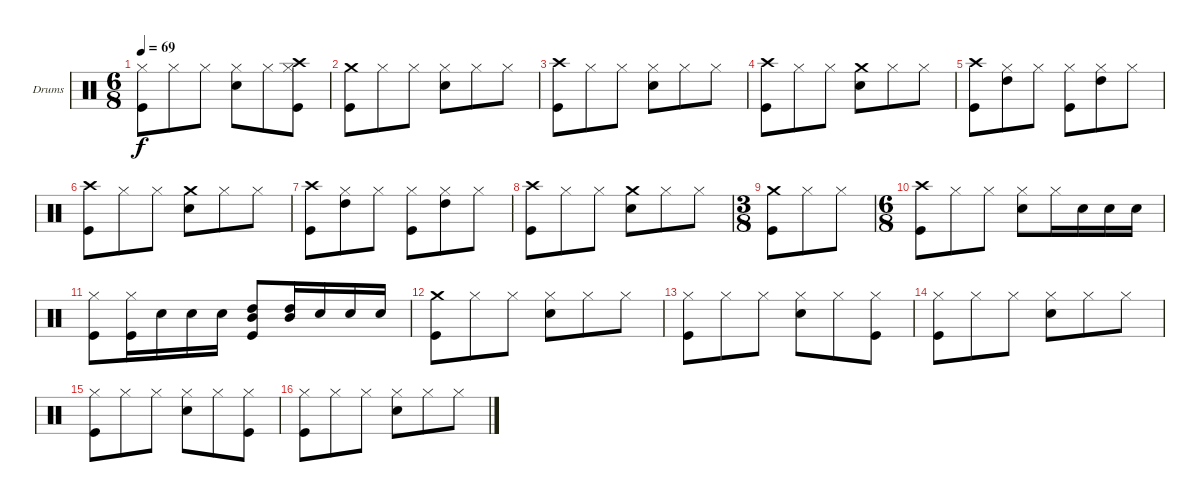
\defaultSystemsLayout 4
\bracketExtendMode groupsimilarinstruments
\firstSystemTrackNameOrientation horizontal
\otherSystemsTrackNameOrientation horizontal
\track ("Удар" "Drums") {instrument percussion}
\staff {score}
\articulation defaults
\ts (6 8)
\tempo 69
\clef neutral
\ks c
("Hi-Hat (closed)" "Kick (hit)").8{dy f} "Hi-Hat (closed)".8 "Hi-Hat (closed)".8 ("Hi-Hat (closed)" "Snare (hit) 2").8 "Hi-Hat (closed)".8 ("Crash high (hit)" "Hi-Hat (closed)" "Kick (hit)").8 |
("Crash medium (hit)" "Kick (hit)").8 "Hi-Hat (closed)".8 "Hi-Hat (closed)".8 ("Hi-Hat (closed)" "Snare (hit) 2").8 "Hi-Hat (closed)".8 "Hi-Hat (closed)".8 |
("Crash high (hit)" "Kick (hit)").8 "Hi-Hat (closed)".8 "Hi-Hat (closed)".8 ("Hi-Hat (closed)" "Snare (hit) 2").8 "Hi-Hat (closed)".8 "Hi-Hat (closed)".8 |
("Crash high (hit)" "Kick (hit)").8 "Hi-Hat (closed)".8 "Hi-Hat (closed)".8 ("Crash medium (hit)" "Snare (hit) 2").8 "Hi-Hat (closed)".8 "Hi-Hat (closed)".8 |
("Crash high (hit)" "Kick (hit)").8 ("Hi-Hat (closed)" "High Tom (hit)").8 "Hi-Hat (closed)".8 ("Hi-Hat (closed)" "Kick (hit)").8 ("Hi-Hat (closed)" "High Tom (hit)").8 "Hi-Hat (closed)".8 |
("Crash high (hit)" "Kick (hit)").8 "Hi-Hat (closed)".8 "Hi-Hat (closed)".8 ("Crash medium (hit)" "Snare (hit) 2").8 "Hi-Hat (closed)".8 "Hi-Hat (closed)".8 |
("Crash high (hit)" "Kick (hit)").8 ("Hi-Hat (closed)" "High Tom (hit)").8 "Hi-Hat (closed)".8 ("Hi-Hat (closed)" "Kick (hit)").8 ("Hi-Hat (closed)" "High Tom (hit)").8 "Hi-Hat (closed)".8 |
("Crash high (hit)" "Kick (hit)").8 "Hi-Hat (closed)".8 "Hi-Hat (closed)".8 ("Crash medium (hit)" "Snare (hit) 2").8 "Hi-Hat (closed)".8 "Hi-Hat (closed)".8 |
\ts (3 8)
("Crash medium (hit)" "Kick (hit)").8 "Hi-Hat (closed)".8 "Hi-Hat (closed)".8 |
\ts (6 8)
("Crash high (hit)" "Kick (hit)").8 "Hi-Hat (closed)".8 "Hi-Hat (closed)".8 ("Hi-Hat (closed)" "Snare (hit) 2").8 "Hi-Hat (closed)".16 "Snare (hit) 2".16 "Snare (hit) 2".16 "Snare (hit) 2".16 |
("Hi-Hat (closed)" "Kick (hit)").8 ("Hi-Hat (closed)" "Kick (hit)").16 "Snare (hit) 2".16 "Snare (hit) 2".16 "Snare (hit) 2".16 ("High Tom (hit)" "Mid Tom (hit)" "Kick (hit)").8 ("High Tom (hit)" "Mid Tom (hit)").16 "Snare (hit) 2".16 "Snare (hit) 2".16 "Snare (hit) 2".16 |
("Crash medium (hit)" "Kick (hit)").8 "Hi-Hat (closed)".8 "Hi-Hat (closed)".8 ("Hi-Hat (closed)" "Snare (hit) 2").8 "Hi-Hat (closed)".8 "Hi-Hat (closed)".8 |
("Hi-Hat (closed)" "Kick (hit)").8 "Hi-Hat (closed)".8 "Hi-Hat (closed)".8 ("Hi-Hat (closed)" "Snare (hit) 2").8 "Hi-Hat (closed)".8 ("Hi-Hat (closed)" "Kick (hit)").8 |
("Hi-Hat (closed)" "Kick (hit)").8 "Hi-Hat (closed)".8 "Hi-Hat (closed)".8 ("Hi-Hat (closed)" "Snare (hit) 2").8 "Hi-Hat (closed)".8 "Hi-Hat (closed)".8 |
("Hi-Hat (closed)" "Kick (hit)").8 "Hi-Hat (closed)".8 "Hi-Hat (closed)".8 ("Hi-Hat (closed)" "Snare (hit) 2").8 "Hi-Hat (closed)".8 ("Hi-Hat (closed)" "Kick (hit)").8 |
("Hi-Hat (closed)" "Kick (hit)").8 "Hi-Hat (closed)".8 "Hi-Hat (closed)".8 ("Hi-Hat (closed)" "Snare (hit) 2").8 "Hi-Hat (closed)".8 "Hi-Hat (closed)".8
